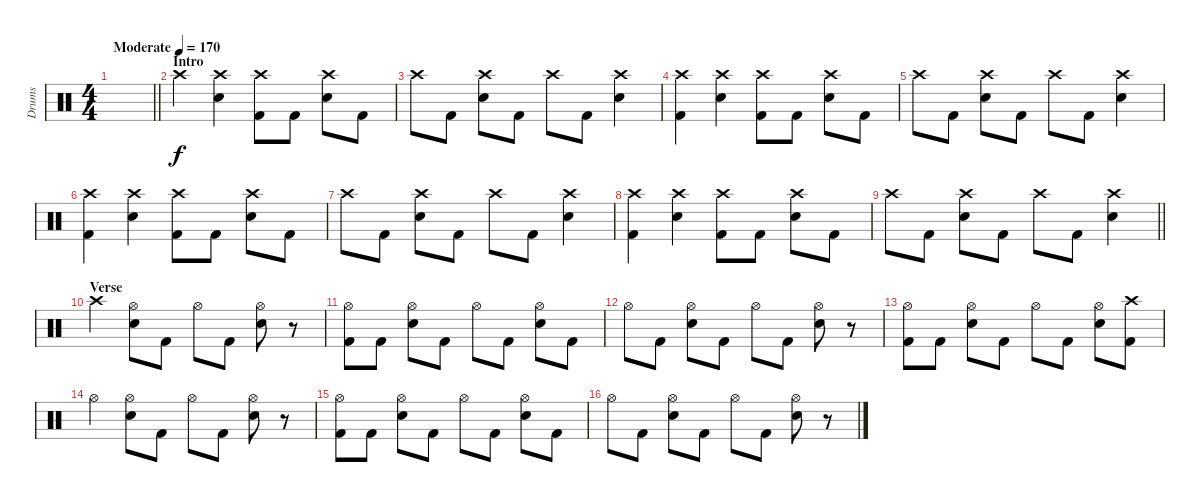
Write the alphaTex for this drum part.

\track ("Drums" "Drums") {instrument percussion}
\staff {score}
\articulation defaults
\ts (4 4)
\tempo (170 "Moderate")
\clef neutral
\barLineRight lightlight
\ks c
|
\section ("" "Intro")
"Crash high (hit)".4 ("Crash high (hit)" "Snare (hit) 2").4 ("Crash high (hit)" "Kick (hit) 2").8 "Kick (hit) 2".8 ("Crash high (hit)" "Snare (hit) 2").8 "Kick (hit) 2".8 |
"Crash high (hit)".8 "Kick (hit) 2".8 ("Crash high (hit)" "Snare (hit) 2").8 "Kick (hit) 2".8 "Crash high (hit)".8 "Kick (hit) 2".8 ("Crash high (hit)" "Snare (hit) 2").4 |
("Crash high (hit)" "Kick (hit) 2").4 ("Crash high (hit)" "Snare (hit) 2").4 ("Crash high (hit)" "Kick (hit) 2").8 "Kick (hit) 2".8 ("Crash high (hit)" "Snare (hit) 2").8 "Kick (hit) 2".8 |
"Crash high (hit)".8 "Kick (hit) 2".8 ("Crash high (hit)" "Snare (hit) 2").8 "Kick (hit) 2".8 "Crash high (hit)".8 "Kick (hit) 2".8 ("Crash high (hit)" "Snare (hit) 2").4 |
("Crash high (hit)" "Kick (hit) 2").4 ("Crash high (hit)" "Snare (hit) 2").4 ("Crash high (hit)" "Kick (hit) 2").8 "Kick (hit) 2".8 ("Crash high (hit)" "Snare (hit) 2").8 "Kick (hit) 2".8 |
"Crash high (hit)".8 "Kick (hit) 2".8 ("Crash high (hit)" "Snare (hit) 2").8 "Kick (hit) 2".8 "Crash high (hit)".8 "Kick (hit) 2".8 ("Crash high (hit)" "Snare (hit) 2").4 |
("Crash high (hit)" "Kick (hit) 2").4 ("Crash high (hit)" "Snare (hit) 2").4 ("Crash high (hit)" "Kick (hit) 2").8 "Kick (hit) 2".8 ("Crash high (hit)" "Snare (hit) 2").8 "Kick (hit) 2".8 |
\barLineRight lightlight "Crash high (hit)".8 "Kick (hit) 2".8
("Crash high (hit)" "Snare (hit) 2").8 "Kick (hit) 2".8 "Crash high (hit)".8 "Kick (hit) 2".8 ("Crash high (hit)" "Snare (hit) 2").4 |
\section ("" "Verse")
"Crash high (hit)".4 ("Hi-Hat (open)" "Snare (hit) 2").8 "Kick (hit) 2".8 "Hi-Hat (open)".8 "Kick (hit) 2".8 ("Hi-Hat (open)" "Snare (hit) 2").8 r.8 |
("Hi-Hat (open)" "Kick (hit) 2").8 "Kick (hit) 2".8 ("Hi-Hat (open)" "Snare (hit) 2").8 "Kick (hit) 2".8 "Hi-Hat (open)".8 "Kick (hit) 2".8 ("Hi-Hat (open)" "Snare (hit) 2").8 "Kick (hit) 2".8 |
"Hi-Hat (open)".8 "Kick (hit) 2".8 ("Hi-Hat (open)" "Snare (hit) 2").8 "Kick (hit) 2".8 "Hi-Hat (open)".8 "Kick (hit) 2".8 ("Hi-Hat (open)" "Snare (hit) 2").8 r.8 |
("Hi-Hat (open)" "Kick (hit) 2").8 "Kick (hit) 2".8 ("Hi-Hat (open)" "Snare (hit) 2").8 "Kick (hit) 2".8 "Hi-Hat (open)".8 "Kick (hit) 2".8 ("Hi-Hat (open)" "Snare (hit) 2").8 ("Crash high (hit)" "Kick (hit) 2").8 |
"Hi-Hat (open)".4 ("Hi-Hat (open)" "Snare (hit) 2").8 "Kick (hit) 2".8 "Hi-Hat (open)".8 "Kick (hit) 2".8 ("Hi-Hat (open)" "Snare (hit) 2").8 r.8 |
("Hi-Hat (open)" "Kick (hit) 2").8 "Kick (hit) 2".8 ("Hi-Hat (open)" "Snare (hit) 2").8 "Kick (hit) 2".8 "Hi-Hat (open)".8 "Kick (hit) 2".8 ("Hi-Hat (open)" "Snare (hit) 2").8 "Kick (hit) 2".8 |
"Hi-Hat (open)".8 "Kick (hit) 2".8 ("Hi-Hat (open)" "Snare (hit) 2").8 "Kick (hit) 2".8 "Hi-Hat (open)".8 "Kick (hit) 2".8 ("Hi-Hat (open)" "Snare (hit) 2").8 r.8
